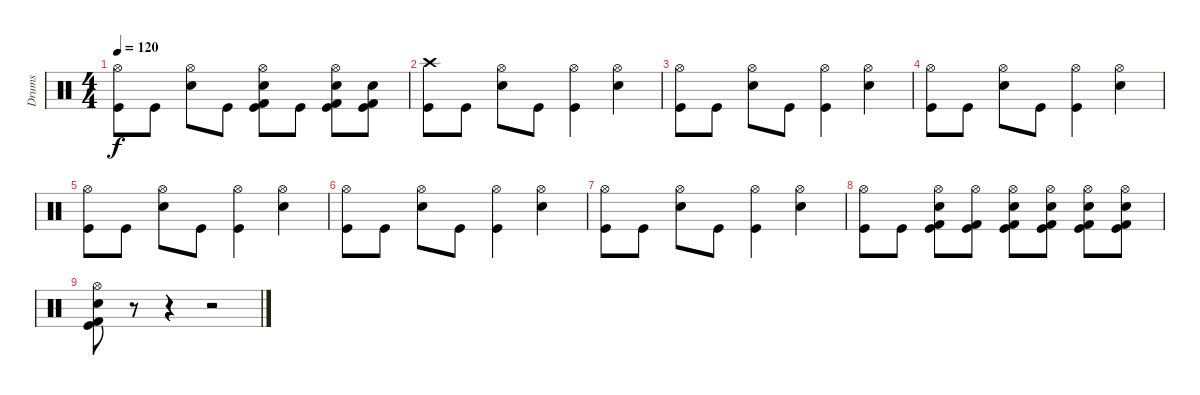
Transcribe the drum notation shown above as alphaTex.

\track ("Drums" "Drums") {instrument percussion}
\staff {score}
\articulation defaults
\ts (4 4)
\tempo 120
\clef neutral
\ks c
("Hi-Hat (open)" "Kick (hit)").8{dy f} "Kick (hit)".8 ("Hi-Hat (open)" "Electric Snare (hit)").8 "Kick (hit)".8 ("Hi-Hat (open)" "Electric Snare (hit)" "Kick (hit) 2" "Kick (hit)").8 "Kick (hit)".8 ("Hi-Hat (open)" "Electric Snare (hit)" "Kick (hit) 2" "Kick (hit)").8 ("Electric Snare (hit)" "Kick (hit) 2" "Kick (hit)").8 |
("Crash high (hit)" "Kick (hit)").8 "Kick (hit)".8 ("Hi-Hat (open)" "Electric Snare (hit)").8 "Kick (hit)".8 ("Hi-Hat (open)" "Kick (hit)").4 ("Hi-Hat (open)" "Electric Snare (hit)").4 |
("Hi-Hat (open)" "Kick (hit)").8 "Kick (hit)".8 ("Hi-Hat (open)" "Electric Snare (hit)").8 "Kick (hit)".8 ("Hi-Hat (open)" "Kick (hit)").4 ("Hi-Hat (open)" "Electric Snare (hit)").4 |
("Hi-Hat (open)" "Kick (hit)").8 "Kick (hit)".8 ("Hi-Hat (open)" "Electric Snare (hit)").8 "Kick (hit)".8 ("Hi-Hat (open)" "Kick (hit)").4 ("Hi-Hat (open)" "Electric Snare (hit)").4 |
("Hi-Hat (open)" "Kick (hit)").8 "Kick (hit)".8 ("Hi-Hat (open)" "Electric Snare (hit)").8 "Kick (hit)".8 ("Hi-Hat (open)" "Kick (hit)").4 ("Hi-Hat (open)" "Electric Snare (hit)").4 |
("Hi-Hat (open)" "Kick (hit)").8 "Kick (hit)".8 ("Hi-Hat (open)" "Electric Snare (hit)").8 "Kick (hit)".8 ("Hi-Hat (open)" "Kick (hit)").4 ("Hi-Hat (open)" "Electric Snare (hit)").4 |
("Hi-Hat (open)" "Kick (hit)").8 "Kick (hit)".8 ("Hi-Hat (open)" "Electric Snare (hit)").8 "Kick (hit)".8 ("Hi-Hat (open)" "Kick (hit)").4 ("Hi-Hat (open)" "Electric Snare (hit)").4 |
("Hi-Hat (open)" "Kick (hit)").8 "Kick (hit)".8 ("Hi-Hat (open)" "Electric Snare (hit)" "Kick (hit) 2" "Kick (hit)").8 ("Hi-Hat (open)" "Kick (hit) 2" "Kick (hit)").8 ("Hi-Hat (open)" "Electric Snare (hit)" "Kick (hit) 2" "Kick (hit)").8 ("Hi-Hat (open)" "Electric Snare (hit)" "Kick (hit) 2" "Kick (hit)").8 ("Hi-Hat (open)" "Electric Snare (hit)" "Kick (hit) 2" "Kick (hit)").8 ("Hi-Hat (open)" "Electric Snare (hit)" "Kick (hit) 2" "Kick (hit)").8 |
("Hi-Hat (open)" "Electric Snare (hit)" "Kick (hit) 2" "Kick (hit)").8 r.8 r.4 r.2
